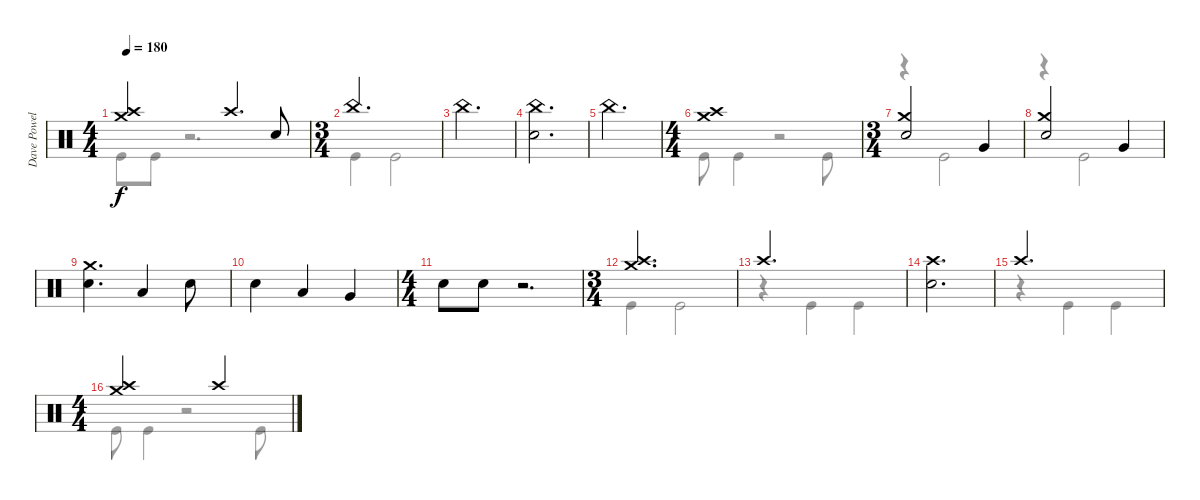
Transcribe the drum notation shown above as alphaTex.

\track ("Dave Powell" "Dave Powel") {instrument percussion}
\staff {score}
\articulation defaults
\voice
\ts (4 4)
\tempo 180
\clef neutral
\ks c
("Crash medium (hit)" "Crash high (hit)").2{dy f} "Crash high (hit)".4{d} "Electric Snare (hit)".8 |
\ts (3 4)
"China (hit)".2{d} |
"China (hit)".2{d} |
("China (hit)" "Electric Snare (hit)").2{d} |
"China (hit)".2{d} |
\ts (4 4)
("Crash medium (hit)" "Crash high (hit)").1 |
\ts (3 4)
("Crash medium (hit)" "Electric Snare (hit)").2 "Very Low Tom (hit)".4 |
("Crash medium (hit)" "Electric Snare (hit)").2 "Very Low Tom (hit)".4 |
("Crash medium (hit)" "Electric Snare (hit)").4{d} "Low Tom (hit)".4 "Electric Snare (hit)".8 |
"Electric Snare (hit)".4 "Low Tom (hit)".4 "Very Low Tom (hit)".4 |
\ts (4 4)
"Electric Snare (hit)".8 "Electric Snare (hit)".8 r.2{d} |
\ts (3 4)
("Crash medium (hit)" "Crash high (hit)").2{d} |
"Crash high (hit)".2{d} |
("Crash high (hit)" "Electric Snare (hit)").2{d} |
"Crash high (hit)".2{d} |
\ts (4 4)
("Crash medium (hit)" "Crash high (hit)").2 "Crash high (hit)".2
\voice
\clef neutral
\ottava regular
\simile none
\ks c "Kick (hit)".8{dy f} "Kick (hit)".8
r.2{d} |
"Kick (hit)".4 "Kick (hit)".2 |
|
|
|
"Kick (hit)".8 "Kick (hit)".4 r.2 "Kick (hit)".8 |
r.4 "Kick (hit)".2 |
r.4 "Kick (hit)".2 |
|
|
|
"Kick (hit)".4 "Kick (hit)".2 |
r.4 "Kick (hit)".4 "Kick (hit)".4 |
|
r.4 "Kick (hit)".4 "Kick (hit)".4 |
"Kick (hit)".8 "Kick (hit)".4 r.2 "Kick (hit)".8
